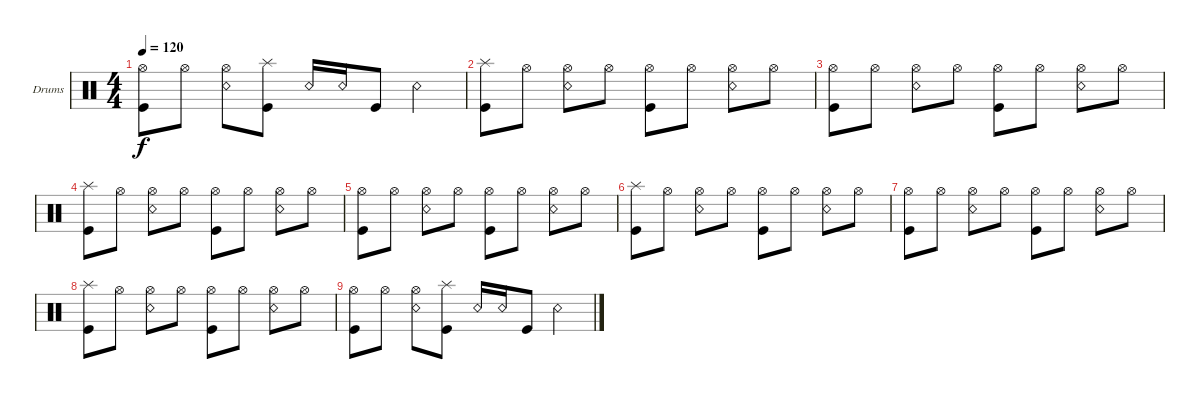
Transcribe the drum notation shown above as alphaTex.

\defaultSystemsLayout 4
\bracketExtendMode groupsimilarinstruments
\firstSystemTrackNameOrientation horizontal
\otherSystemsTrackNameOrientation horizontal
\track ("Drumkit" "Drums") {instrument percussion}
\staff {score}
\articulation defaults
\ts (4 4)
\tempo 120
\clef neutral
\ks c
("Kick (hit)" "Hi-Hat (open)").8{dy f} "Hi-Hat (open)".8 ("Hi-Hat (open)" "Snare (rim shot)").8 ("Kick (hit)" "Splash (hit)").8 "Snare (rim shot)".16 "Snare (rim shot)".16 "Kick (hit)".8 "Snare (rim shot)".4 |
("Kick (hit)" "Splash (hit)").8 "Hi-Hat (open)".8 ("Hi-Hat (open)" "Snare (rim shot)").8 "Hi-Hat (open)".8 ("Hi-Hat (open)" "Kick (hit)").8 "Hi-Hat (open)".8 ("Hi-Hat (open)" "Snare (rim shot)").8 "Hi-Hat (open)".8 |
("Kick (hit)" "Hi-Hat (open)").8 "Hi-Hat (open)".8 ("Hi-Hat (open)" "Snare (rim shot)").8 "Hi-Hat (open)".8 ("Hi-Hat (open)" "Kick (hit)").8 "Hi-Hat (open)".8 ("Hi-Hat (open)" "Snare (rim shot)").8 "Hi-Hat (open)".8 |
("Kick (hit)" "Splash (hit)").8 "Hi-Hat (open)".8 ("Hi-Hat (open)" "Snare (rim shot)").8 "Hi-Hat (open)".8 ("Hi-Hat (open)" "Kick (hit)").8 "Hi-Hat (open)".8 ("Hi-Hat (open)" "Snare (rim shot)").8 "Hi-Hat (open)".8 |
("Kick (hit)" "Hi-Hat (open)").8 "Hi-Hat (open)".8 ("Hi-Hat (open)" "Snare (rim shot)").8 "Hi-Hat (open)".8 ("Hi-Hat (open)" "Kick (hit)").8 "Hi-Hat (open)".8 ("Hi-Hat (open)" "Snare (rim shot)").8 "Hi-Hat (open)".8 |
("Kick (hit)" "Splash (hit)").8 "Hi-Hat (open)".8 ("Hi-Hat (open)" "Snare (rim shot)").8 "Hi-Hat (open)".8 ("Hi-Hat (open)" "Kick (hit)").8 "Hi-Hat (open)".8 ("Hi-Hat (open)" "Snare (rim shot)").8 "Hi-Hat (open)".8 |
("Kick (hit)" "Hi-Hat (open)").8 "Hi-Hat (open)".8 ("Hi-Hat (open)" "Snare (rim shot)").8 "Hi-Hat (open)".8 ("Hi-Hat (open)" "Kick (hit)").8 "Hi-Hat (open)".8 ("Hi-Hat (open)" "Snare (rim shot)").8 "Hi-Hat (open)".8 |
("Kick (hit)" "Splash (hit)").8 "Hi-Hat (open)".8 ("Hi-Hat (open)" "Snare (rim shot)").8 "Hi-Hat (open)".8 ("Hi-Hat (open)" "Kick (hit)").8 "Hi-Hat (open)".8 ("Hi-Hat (open)" "Snare (rim shot)").8 "Hi-Hat (open)".8 |
("Kick (hit)" "Hi-Hat (open)").8 "Hi-Hat (open)".8 ("Hi-Hat (open)" "Snare (rim shot)").8 ("Kick (hit)" "Splash (hit)").8 "Snare (rim shot)".16 "Snare (rim shot)".16 "Kick (hit)".8 "Snare (rim shot)".4
